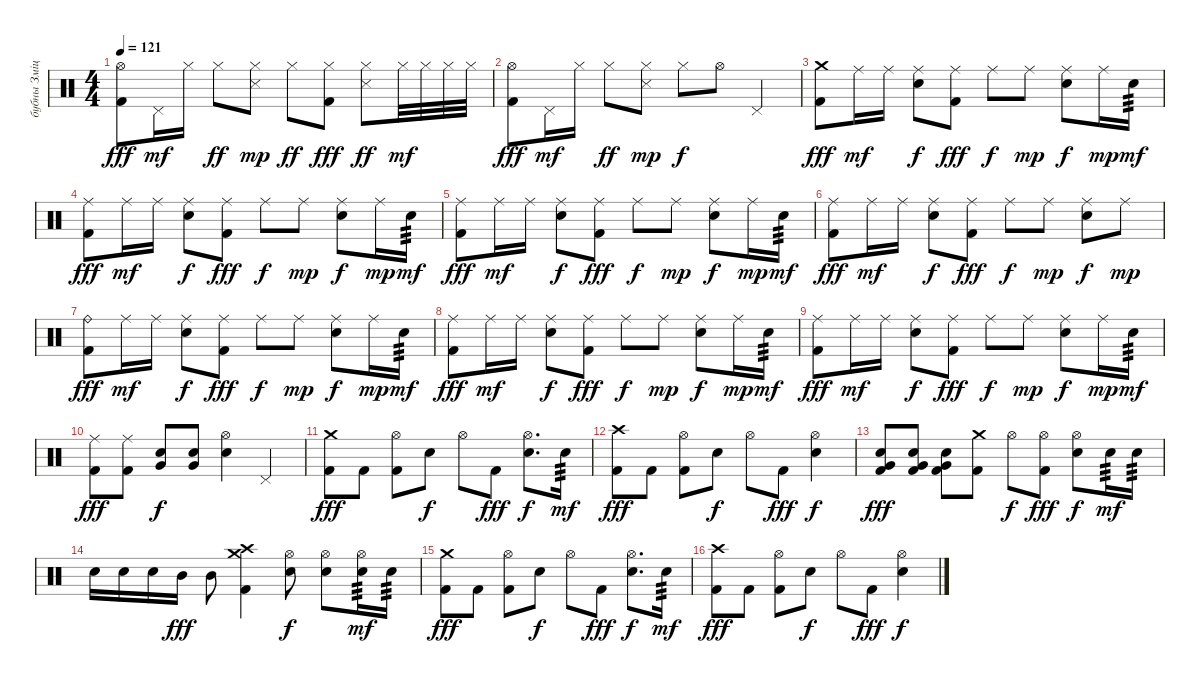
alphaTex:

\track ("бубны Змiцер " "бубны Змiц") {instrument percussion}
\staff {score}
\articulation defaults
\ts (4 4)
\tempo 121
\clef neutral
\ks c
("Hi-Hat (open)" "Kick (hit) 2").8{dy fff} "Pedal Hi-Hat (hit)".16{dy mf} "Hi-Hat (closed)".16 "Hi-Hat (closed)".8{dy ff} ("Hi-Hat (closed)" "Snare (side stick) 3").8{dy mp} "Hi-Hat (closed)".8{dy ff} ("Hi-Hat (closed)" "Kick (hit) 2").8{dy fff} ("Hi-Hat (closed)" "Snare (side stick) 3").8{dy ff} "Hi-Hat (closed)".32{dy mf} "Hi-Hat (closed)".32 "Hi-Hat (closed)".32 "Hi-Hat (closed)".32 |
("Hi-Hat (open)" "Kick (hit) 2").8{dy fff} "Pedal Hi-Hat (hit)".16{dy mf} "Hi-Hat (closed)".16 "Hi-Hat (closed)".8{dy ff} ("Hi-Hat (closed)" "Snare (side stick) 3").8{dy mp} "Hi-Hat (closed)".8{dy f} "Hi-Hat (open)".8 "Pedal Hi-Hat (hit)".4 |
("Crash medium (hit)" "Kick (hit) 2").8{dy fff} "Ride (middle)".16{dy mf} "Ride (middle)".16 ("Ride (middle)" "Electric Snare (hit)").8{dy f} ("Ride (middle)" "Kick (hit) 2").8{dy fff} "Ride (middle)".8{dy f} "Ride (middle)".8{dy mp} ("Ride (middle)" "Electric Snare (hit)").8{dy f} "Ride (middle)".16{dy mp} "Electric Snare (hit)".16{tp 3 dy mf} |
("Ride (middle)" "Kick (hit) 2").8{dy fff} "Ride (middle)".16{dy mf} "Ride (middle)".16 ("Ride (middle)" "Electric Snare (hit)").8{dy f} ("Ride (middle)" "Kick (hit) 2").8{dy fff} "Ride (middle)".8{dy f} "Ride (middle)".8{dy mp} ("Ride (middle)" "Electric Snare (hit)").8{dy f} "Ride (middle)".16{dy mp} "Electric Snare (hit)".16{tp 3 dy mf} |
("Ride (middle)" "Kick (hit) 2").8{dy fff} "Ride (middle)".16{dy mf} "Ride (middle)".16 ("Ride (middle)" "Electric Snare (hit)").8{dy f} ("Ride (middle)" "Kick (hit) 2").8{dy fff} "Ride (middle)".8{dy f} "Ride (middle)".8{dy mp} ("Ride (middle)" "Electric Snare (hit)").8{dy f} "Ride (middle)".16{dy mp} "Electric Snare (hit)".16{tp 3 dy mf} |
("Ride (middle)" "Kick (hit) 2").8{dy fff} "Ride (middle)".16{dy mf} "Ride (middle)".16 ("Ride (middle)" "Electric Snare (hit)").8{dy f} ("Ride (middle)" "Kick (hit) 2").8{dy fff} "Ride (middle)".8{dy f} "Ride (middle)".8{dy mp} ("Ride (middle)" "Electric Snare (hit)").8{dy f} "Ride (middle)".8{dy mp} |
("Ride (bell)" "Kick (hit) 2").8{dy fff} "Ride (middle)".16{dy mf} "Ride (middle)".16 ("Ride (middle)" "Electric Snare (hit)").8{dy f} ("Ride (middle)" "Kick (hit) 2").8{dy fff} "Ride (middle)".8{dy f} "Ride (middle)".8{dy mp} ("Ride (middle)" "Electric Snare (hit)").8{dy f} "Ride (middle)".16{dy mp} "Electric Snare (hit)".16{tp 3 dy mf} |
("Ride (middle)" "Kick (hit) 2").8{dy fff} "Ride (middle)".16{dy mf} "Ride (middle)".16 ("Ride (middle)" "Electric Snare (hit)").8{dy f} ("Ride (middle)" "Kick (hit) 2").8{dy fff} "Ride (middle)".8{dy f} "Ride (middle)".8{dy mp} ("Ride (middle)" "Electric Snare (hit)").8{dy f} "Ride (middle)".16{dy mp} "Electric Snare (hit)".16{tp 3 dy mf} |
("Ride (middle)" "Kick (hit) 2").8{dy fff} "Ride (middle)".16{dy mf} "Ride (middle)".16 ("Ride (middle)" "Electric Snare (hit)").8{dy f} ("Ride (middle)" "Kick (hit) 2").8{dy fff} "Ride (middle)".8{dy f} "Ride (middle)".8{dy mp} ("Ride (middle)" "Electric Snare (hit)").8{dy f} "Ride (middle)".16{dy mp} "Electric Snare (hit)".16{tp 3 dy mf} |
("Ride (middle)" "Kick (hit) 2").8{dy fff} ("Ride (middle)" "Kick (hit) 2").8 ("Very Low Tom (hit)" "Electric Snare (hit)").8{dy f} ("Very Low Tom (hit)" "Electric Snare (hit)").8 ("Hi-Hat (open)" "Electric Snare (hit)").4 "Pedal Hi-Hat (hit)".4 |
("Crash medium (hit)" "Kick (hit) 2").8{dy fff} "Kick (hit) 2".8 ("Hi-Hat (open)" "Kick (hit) 2").8 "Electric Snare (hit)".8{dy f} "Hi-Hat (open)".8 "Kick (hit) 2".8{dy fff} ("Hi-Hat (open)" "Electric Snare (hit)").8{d dy f} "Electric Snare (hit)".16{tp 3 dy mf} |
("Crash high (hit)" "Kick (hit) 2").8{dy fff} "Kick (hit) 2".8 ("Hi-Hat (open)" "Kick (hit) 2").8 "Electric Snare (hit)".8{dy f} "Hi-Hat (open)".8 "Kick (hit) 2".8{dy fff} ("Hi-Hat (open)" "Electric Snare (hit)").4{dy f} |
("Very Low Tom (hit)" "Electric Snare (hit)" "Kick (hit) 2").8{dy fff} ("Very Low Tom (hit)" "Electric Snare (hit)" "Kick (hit) 2").8 ("Very Low Tom (hit)" "Electric Snare (hit)" "Kick (hit) 2").8 ("Crash medium (hit)" "Kick (hit) 2").8 "Hi-Hat (open)".8{dy f} ("Hi-Hat (open)" "Kick (hit) 2").8{dy fff} ("Hi-Hat (open)" "Electric Snare (hit)").8{dy f} "Electric Snare (hit)".16{tp 3 dy mf} "Electric Snare (hit)".16{tp 3} |
"Electric Snare (hit)".16 "Electric Snare (hit)".16 "Electric Snare (hit)".16 "Mid Tom (hit)".16{dy fff} "Mid Tom (hit)".8 ("Crash medium (hit)" "Crash high (hit)" "Kick (hit) 2").4 ("Hi-Hat (open)" "Electric Snare (hit)").8{dy f} ("Hi-Hat (open)" "Electric Snare (hit)").8 ("Hi-Hat (open)" "Electric Snare (hit)").16{tp 3 dy mf} "Electric Snare (hit)".16{tp 3} |
("Crash medium (hit)" "Kick (hit) 2").8{dy fff} "Kick (hit) 2".8 ("Hi-Hat (open)" "Kick (hit) 2").8 "Electric Snare (hit)".8{dy f} "Hi-Hat (open)".8 "Kick (hit) 2".8{dy fff} ("Hi-Hat (open)" "Electric Snare (hit)").8{d dy f} "Electric Snare (hit)".16{tp 3 dy mf} |
("Crash high (hit)" "Kick (hit) 2").8{dy fff} "Kick (hit) 2".8 ("Hi-Hat (open)" "Kick (hit) 2").8 "Electric Snare (hit)".8{dy f} "Hi-Hat (open)".8 "Kick (hit) 2".8{dy fff} ("Hi-Hat (open)" "Electric Snare (hit)").4{dy f}
